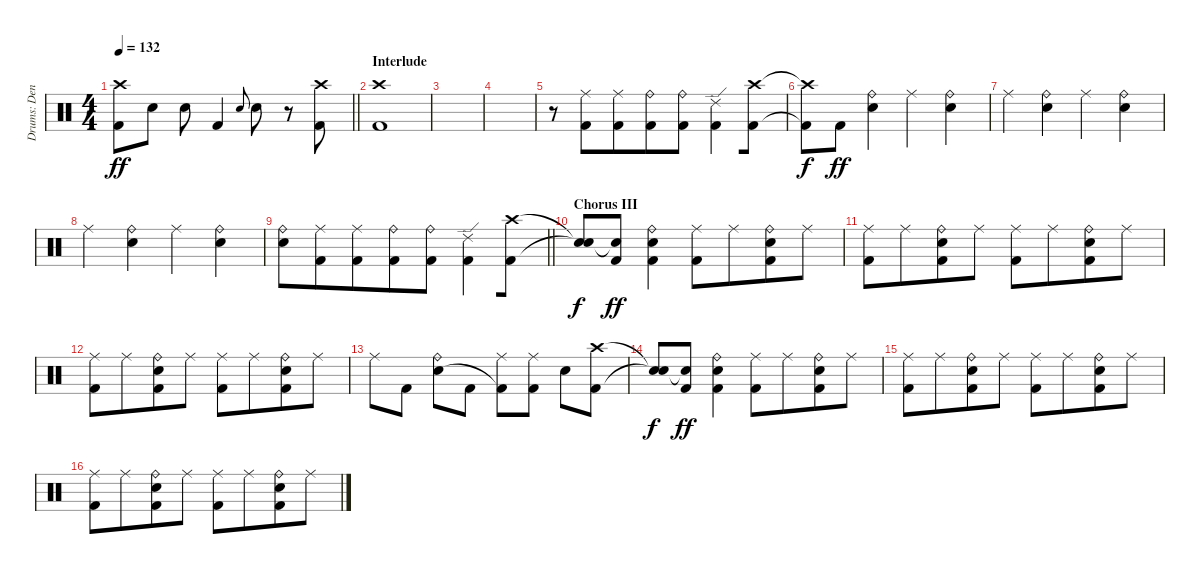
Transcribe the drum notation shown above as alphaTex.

\track ("Drums: Denny" "Drums: Den") {instrument percussion}
\staff {score}
\articulation defaults
\ts (4 4)
\tempo 132
\clef neutral
\barLineRight lightlight
\ks c
("Crash high (hit)" "Kick (hit) 2").8{dy ff} "Electric Snare (hit)".8 "Electric Snare (hit)".8 "Kick (hit) 2".4 "Snare (hit) 2".8{gr onbeat} "Electric Snare (hit)".8 r.8 ("Crash high (hit)" "Kick (hit) 2").8 |
\section ("" "Interlude")
("Crash high (hit)" "Kick (hit) 2").1 |
|
|
r.8 ("Ride (middle)" "Kick (hit) 2").8{beam merge} ("Ride (middle)" "Kick (hit) 2").8 ("Ride (bell)" "Kick (hit) 2").8{beam merge} ("Ride (bell)" "Kick (hit) 2").8{beam merge} ("Ride (edge) 2" "Kick (hit) 2").4{beam merge} ("Crash high (hit)" "Kick (hit) 2").8 |
("Crash high (hit)"{t} "Kick (hit) 2"{t}).8{dy f} "Kick (hit) 2".8{dy ff beam merge} ("Ride (bell)" "Electric Snare (hit)").4{beam merge} "Ride (middle)".4{beam merge} ("Ride (bell)" "Electric Snare (hit)").4 |
"Ride (middle)".4{beam merge} ("Ride (bell)" "Electric Snare (hit)").4{beam merge} "Ride (middle)".4{beam merge} ("Ride (bell)" "Electric Snare (hit)").4 |
"Ride (middle)".4{beam merge} ("Ride (bell)" "Electric Snare (hit)").4{beam merge} "Ride (middle)".4{beam merge} ("Ride (bell)" "Electric Snare (hit)").4 |
\barLineRight lightlight
("Ride (bell)" "Electric Snare (hit)").8 ("Ride (middle)" "Kick (hit) 2").8{beam merge} ("Ride (middle)" "Kick (hit) 2").8 ("Ride (bell)" "Kick (hit) 2").8{beam merge} ("Ride (bell)" "Kick (hit) 2").8{beam merge} ("Ride (edge) 2" "Kick (hit) 2").4{beam merge} ("Crash high (hit)" "Kick (hit) 2").8 |
\section ("" "Chorus III")
("Snare (hit)"{t} "Snare (hit)"{t}).8{dy f} ("Snare (hit)"{t} "Kick (hit) 2").8{dy ff} ("Ride (bell)" "Electric Snare (hit)" "Kick (hit) 2").4 ("Ride (middle)" "Kick (hit) 2").8 "Ride (middle)".8{beam merge} ("Ride (bell)" "Electric Snare (hit)" "Kick (hit) 2").8 "Ride (middle)".8 |
("Ride (middle)" "Kick (hit) 2").8 "Ride (middle)".8{beam merge} ("Ride (bell)" "Electric Snare (hit)" "Kick (hit) 2").8 "Ride (middle)".8 ("Ride (middle)" "Kick (hit) 2").8 "Ride (middle)".8{beam merge} ("Ride (bell)" "Electric Snare (hit)" "Kick (hit) 2").8 "Ride (middle)".8 |
("Ride (middle)" "Kick (hit) 2").8 "Ride (middle)".8{beam merge} ("Ride (bell)" "Electric Snare (hit)" "Kick (hit) 2").8 "Ride (middle)".8 ("Ride (middle)" "Kick (hit) 2").8 "Ride (middle)".8{beam merge} ("Ride (bell)" "Electric Snare (hit)" "Kick (hit) 2").8 "Ride (middle)".8 |
"Ride (middle)".8 "Kick (hit) 2".8 ("Ride (bell)" "Electric Snare (hit)").8 "Kick (hit) 2".8 ("Ride (middle)" "Kick (hit) 2"{t}).8 ("Ride (middle)" "Kick (hit) 2").8 "Electric Snare (hit)".8 ("Crash high (hit)" "Kick (hit) 2").8 |
("Snare (hit)"{t} "Snare (hit)"{t}).8{dy f} ("Snare (hit)"{t} "Kick (hit) 2").8{dy ff} ("Ride (bell)" "Electric Snare (hit)" "Kick (hit) 2").4 ("Ride (middle)" "Kick (hit) 2").8 "Ride (middle)".8{beam merge} ("Ride (bell)" "Electric Snare (hit)" "Kick (hit) 2").8 "Ride (middle)".8 |
("Ride (middle)" "Kick (hit) 2").8 "Ride (middle)".8{beam merge} ("Ride (bell)" "Electric Snare (hit)" "Kick (hit) 2").8 "Ride (middle)".8 ("Ride (middle)" "Kick (hit) 2").8 "Ride (middle)".8{beam merge} ("Ride (bell)" "Electric Snare (hit)" "Kick (hit) 2").8 "Ride (middle)".8 |
("Ride (middle)" "Kick (hit) 2").8 "Ride (middle)".8{beam merge} ("Ride (bell)" "Electric Snare (hit)" "Kick (hit) 2").8 "Ride (middle)".8 ("Ride (middle)" "Kick (hit) 2").8 "Ride (middle)".8{beam merge} ("Ride (bell)" "Electric Snare (hit)" "Kick (hit) 2").8 "Ride (middle)".8
